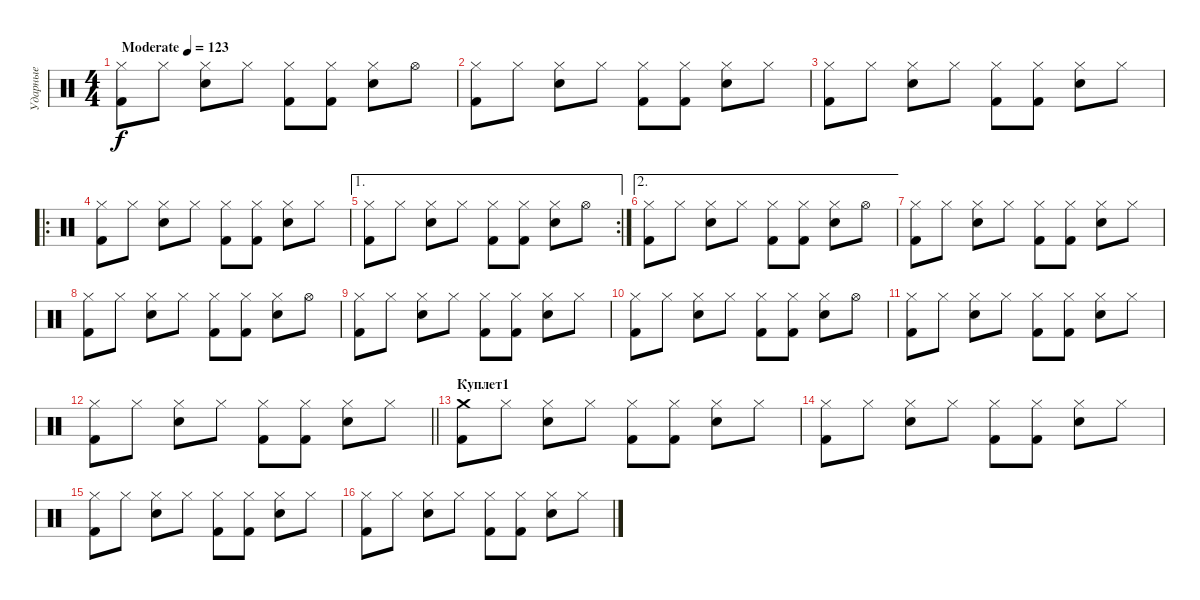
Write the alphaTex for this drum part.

\track ("Ударные" "Ударные") {instrument percussion}
\staff {score}
\articulation defaults
\ts (4 4)
\tempo (123 "Moderate")
\clef neutral
\ks c
("Hi-Hat (closed)" "Kick (hit) 2").8{dy f} "Hi-Hat (closed)".8 ("Hi-Hat (closed)" "Electric Snare (hit)").8 "Hi-Hat (closed)".8 ("Hi-Hat (closed)" "Kick (hit) 2").8 ("Hi-Hat (closed)" "Kick (hit) 2").8 ("Hi-Hat (closed)" "Electric Snare (hit)").8 "Hi-Hat (open)".8 |
("Hi-Hat (closed)" "Kick (hit) 2").8 "Hi-Hat (closed)".8 ("Hi-Hat (closed)" "Electric Snare (hit)").8 "Hi-Hat (closed)".8 ("Hi-Hat (closed)" "Kick (hit) 2").8 ("Hi-Hat (closed)" "Kick (hit) 2").8 ("Hi-Hat (closed)" "Electric Snare (hit)").8 "Hi-Hat (closed)".8 |
("Hi-Hat (closed)" "Kick (hit) 2").8 "Hi-Hat (closed)".8 ("Hi-Hat (closed)" "Electric Snare (hit)").8 "Hi-Hat (closed)".8 ("Hi-Hat (closed)" "Kick (hit) 2").8 ("Hi-Hat (closed)" "Kick (hit) 2").8 ("Hi-Hat (closed)" "Electric Snare (hit)").8 "Hi-Hat (closed)".8 |
\ro
("Hi-Hat (closed)" "Kick (hit) 2").8 "Hi-Hat (closed)".8 ("Hi-Hat (closed)" "Electric Snare (hit)").8 "Hi-Hat (closed)".8 ("Hi-Hat (closed)" "Kick (hit) 2").8 ("Hi-Hat (closed)" "Kick (hit) 2").8 ("Hi-Hat (closed)" "Electric Snare (hit)").8 "Hi-Hat (closed)".8 |
\ae 1
\rc 2
("Hi-Hat (closed)" "Kick (hit) 2").8 "Hi-Hat (closed)".8 ("Hi-Hat (closed)" "Electric Snare (hit)").8 "Hi-Hat (closed)".8 ("Hi-Hat (closed)" "Kick (hit) 2").8 ("Hi-Hat (closed)" "Kick (hit) 2").8 ("Hi-Hat (closed)" "Electric Snare (hit)").8 "Hi-Hat (open)".8 |
\ae 2
("Hi-Hat (closed)" "Kick (hit) 2").8 "Hi-Hat (closed)".8 ("Hi-Hat (closed)" "Electric Snare (hit)").8 "Hi-Hat (closed)".8 ("Hi-Hat (closed)" "Kick (hit) 2").8 ("Hi-Hat (closed)" "Kick (hit) 2").8 ("Hi-Hat (closed)" "Electric Snare (hit)").8 "Hi-Hat (open)".8 |
("Hi-Hat (closed)" "Kick (hit) 2").8 "Hi-Hat (closed)".8 ("Hi-Hat (closed)" "Electric Snare (hit)").8 "Hi-Hat (closed)".8 ("Hi-Hat (closed)" "Kick (hit) 2").8 ("Hi-Hat (closed)" "Kick (hit) 2").8 ("Hi-Hat (closed)" "Electric Snare (hit)").8 "Hi-Hat (closed)".8 |
("Hi-Hat (closed)" "Kick (hit) 2").8 "Hi-Hat (closed)".8 ("Hi-Hat (closed)" "Electric Snare (hit)").8 "Hi-Hat (closed)".8 ("Hi-Hat (closed)" "Kick (hit) 2").8 ("Hi-Hat (closed)" "Kick (hit) 2").8 ("Hi-Hat (closed)" "Electric Snare (hit)").8 "Hi-Hat (open)".8 |
("Hi-Hat (closed)" "Kick (hit) 2").8 "Hi-Hat (closed)".8 ("Hi-Hat (closed)" "Electric Snare (hit)").8 "Hi-Hat (closed)".8 ("Hi-Hat (closed)" "Kick (hit) 2").8 ("Hi-Hat (closed)" "Kick (hit) 2").8 ("Hi-Hat (closed)" "Electric Snare (hit)").8 "Hi-Hat (closed)".8 |
("Hi-Hat (closed)" "Kick (hit) 2").8 "Hi-Hat (closed)".8 ("Hi-Hat (closed)" "Electric Snare (hit)").8 "Hi-Hat (closed)".8 ("Hi-Hat (closed)" "Kick (hit) 2").8 ("Hi-Hat (closed)" "Kick (hit) 2").8 ("Hi-Hat (closed)" "Electric Snare (hit)").8 "Hi-Hat (open)".8 |
("Hi-Hat (closed)" "Kick (hit) 2").8 "Hi-Hat (closed)".8 ("Hi-Hat (closed)" "Electric Snare (hit)").8 "Hi-Hat (closed)".8 ("Hi-Hat (closed)" "Kick (hit) 2").8 ("Hi-Hat (closed)" "Kick (hit) 2").8 ("Hi-Hat (closed)" "Electric Snare (hit)").8 "Hi-Hat (closed)".8 |
\barLineRight lightlight
("Hi-Hat (closed)" "Kick (hit) 2").8 "Hi-Hat (closed)".8 ("Hi-Hat (closed)" "Electric Snare (hit)").8 "Hi-Hat (closed)".8 ("Hi-Hat (closed)" "Kick (hit) 2").8 ("Hi-Hat (closed)" "Kick (hit) 2").8 ("Hi-Hat (closed)" "Electric Snare (hit)").8 "Hi-Hat (closed)".8 |
\section ("" "Куплет1")
("Crash medium (hit)" "Kick (hit) 2").8 "Hi-Hat (closed)".8 ("Hi-Hat (closed)" "Electric Snare (hit)").8 "Hi-Hat (closed)".8 ("Hi-Hat (closed)" "Kick (hit) 2").8 ("Hi-Hat (closed)" "Kick (hit) 2").8 ("Hi-Hat (closed)" "Electric Snare (hit)").8 "Hi-Hat (closed)".8 |
("Hi-Hat (closed)" "Kick (hit) 2").8 "Hi-Hat (closed)".8 ("Hi-Hat (closed)" "Electric Snare (hit)").8 "Hi-Hat (closed)".8 ("Hi-Hat (closed)" "Kick (hit) 2").8 ("Hi-Hat (closed)" "Kick (hit) 2").8 ("Hi-Hat (closed)" "Electric Snare (hit)").8 "Hi-Hat (closed)".8 |
("Hi-Hat (closed)" "Kick (hit) 2").8 "Hi-Hat (closed)".8 ("Hi-Hat (closed)" "Electric Snare (hit)").8 "Hi-Hat (closed)".8 ("Hi-Hat (closed)" "Kick (hit) 2").8 ("Hi-Hat (closed)" "Kick (hit) 2").8 ("Hi-Hat (closed)" "Electric Snare (hit)").8 "Hi-Hat (closed)".8 |
("Hi-Hat (closed)" "Kick (hit) 2").8 "Hi-Hat (closed)".8 ("Hi-Hat (closed)" "Electric Snare (hit)").8 "Hi-Hat (closed)".8 ("Hi-Hat (closed)" "Kick (hit) 2").8 ("Hi-Hat (closed)" "Kick (hit) 2").8 ("Hi-Hat (closed)" "Electric Snare (hit)").8 "Hi-Hat (closed)".8
